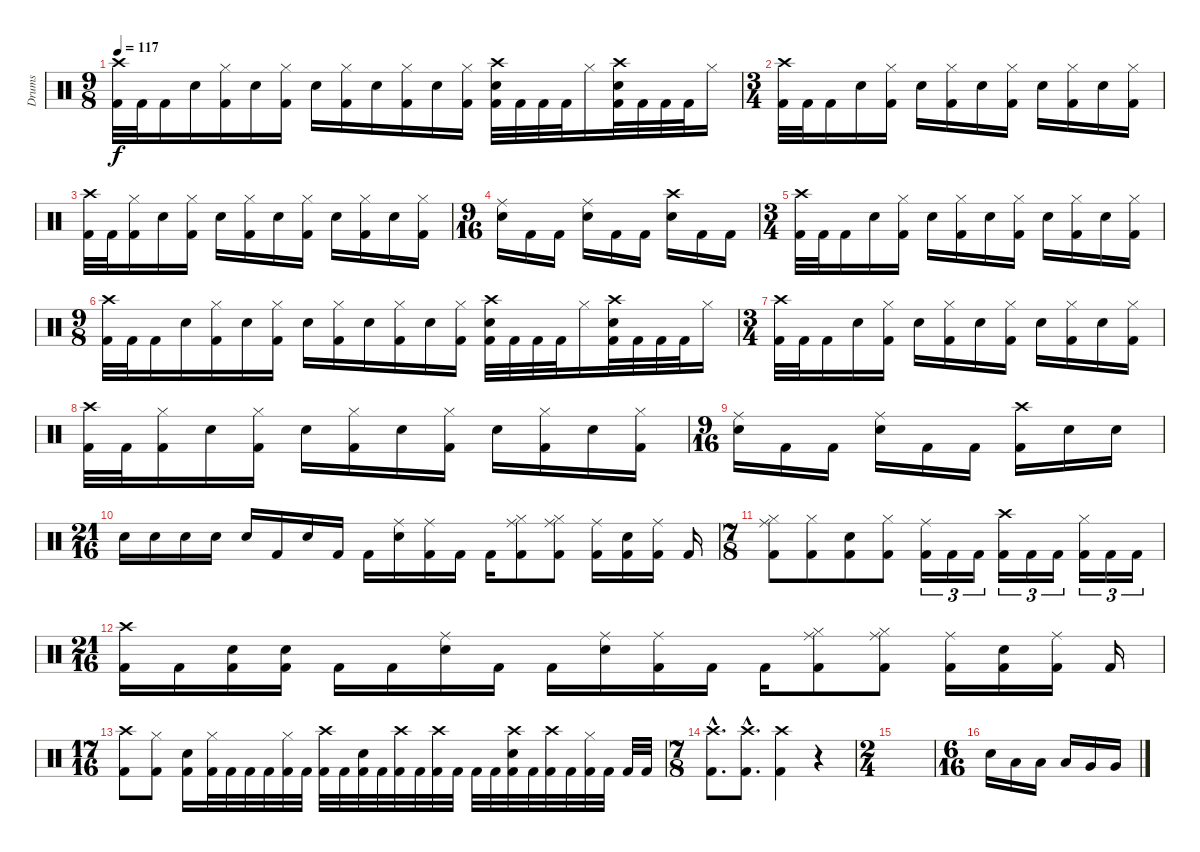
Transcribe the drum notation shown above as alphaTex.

\track ("Drums" "Drums") {instrument percussion}
\staff {score}
\articulation defaults
\ts (9 8)
\tempo 117
\clef neutral
\ks c
("Crash high (hit)" "Kick (hit) 2").32{dy f} "Kick (hit) 2".32 "Kick (hit) 2".16 "Electric Snare (hit)".16 ("Hi-Hat (closed)" "Kick (hit) 2").16 "Electric Snare (hit)".16 ("Hi-Hat (closed)" "Kick (hit) 2").16 "Electric Snare (hit)".16 ("Hi-Hat (closed)" "Kick (hit) 2").16 "Electric Snare (hit)".16 ("Hi-Hat (closed)" "Kick (hit) 2").16 "Electric Snare (hit)".16 ("Hi-Hat (closed)" "Kick (hit) 2").16 ("Crash high (hit)" "Electric Snare (hit)" "Kick (hit) 2").32 "Kick (hit) 2".32 "Kick (hit) 2".32 "Kick (hit) 2".32 "Hi-Hat (closed)".16 ("Crash high (hit)" "Electric Snare (hit)" "Kick (hit) 2").32 "Kick (hit) 2".32 "Kick (hit) 2".32 "Kick (hit) 2".32 "Hi-Hat (closed)".16 |
\ts (3 4)
("Crash high (hit)" "Kick (hit) 2").32 "Kick (hit) 2".32 "Kick (hit) 2".16 "Electric Snare (hit)".16 ("Hi-Hat (closed)" "Kick (hit) 2").16 "Electric Snare (hit)".16 ("Hi-Hat (closed)" "Kick (hit) 2").16 "Electric Snare (hit)".16 ("Hi-Hat (closed)" "Kick (hit) 2").16 "Electric Snare (hit)".16 ("Hi-Hat (closed)" "Kick (hit) 2").16 "Electric Snare (hit)".16 ("Hi-Hat (closed)" "Kick (hit) 2").16 |
("Crash high (hit)" "Kick (hit) 2").32 "Kick (hit) 2".32 ("Hi-Hat (closed)" "Kick (hit) 2").16 "Electric Snare (hit)".16 ("Hi-Hat (closed)" "Kick (hit) 2").16 "Electric Snare (hit)".16 ("Hi-Hat (closed)" "Kick (hit) 2").16 "Electric Snare (hit)".16 ("Hi-Hat (closed)" "Kick (hit) 2").16 "Electric Snare (hit)".16 ("Hi-Hat (closed)" "Kick (hit) 2").16 "Electric Snare (hit)".16 ("Hi-Hat (closed)" "Kick (hit) 2").16 |
\ts (9 16)
("Ride (middle)" "Electric Snare (hit)").16 "Kick (hit) 2".16 "Kick (hit) 2".16 ("Ride (middle)" "Electric Snare (hit)").16 "Kick (hit) 2".16 "Kick (hit) 2".16 ("Crash high (hit)" "Electric Snare (hit)").16 "Kick (hit) 2".16 "Kick (hit) 2".16 |
\ts (3 4)
("Crash high (hit)" "Kick (hit) 2").32 "Kick (hit) 2".32 "Kick (hit) 2".16 "Electric Snare (hit)".16 ("Hi-Hat (closed)" "Kick (hit) 2").16 "Electric Snare (hit)".16 ("Hi-Hat (closed)" "Kick (hit) 2").16 "Electric Snare (hit)".16 ("Hi-Hat (closed)" "Kick (hit) 2").16 "Electric Snare (hit)".16 ("Hi-Hat (closed)" "Kick (hit) 2").16 "Electric Snare (hit)".16 ("Hi-Hat (closed)" "Kick (hit) 2").16 |
\ts (9 8)
("Crash high (hit)" "Kick (hit) 2").32 "Kick (hit) 2".32 "Kick (hit) 2".16 "Electric Snare (hit)".16 ("Hi-Hat (closed)" "Kick (hit) 2").16 "Electric Snare (hit)".16 ("Hi-Hat (closed)" "Kick (hit) 2").16 "Electric Snare (hit)".16 ("Hi-Hat (closed)" "Kick (hit) 2").16 "Electric Snare (hit)".16 ("Hi-Hat (closed)" "Kick (hit) 2").16 "Electric Snare (hit)".16 ("Hi-Hat (closed)" "Kick (hit) 2").16 ("Crash high (hit)" "Electric Snare (hit)" "Kick (hit) 2").32 "Kick (hit) 2".32 "Kick (hit) 2".32 "Kick (hit) 2".32 "Hi-Hat (closed)".16 ("Crash high (hit)" "Electric Snare (hit)" "Kick (hit) 2").32 "Kick (hit) 2".32 "Kick (hit) 2".32 "Kick (hit) 2".32 "Hi-Hat (closed)".16 |
\ts (3 4)
("Crash high (hit)" "Kick (hit) 2").32 "Kick (hit) 2".32 "Kick (hit) 2".16 "Electric Snare (hit)".16 ("Hi-Hat (closed)" "Kick (hit) 2").16 "Electric Snare (hit)".16 ("Hi-Hat (closed)" "Kick (hit) 2").16 "Electric Snare (hit)".16 ("Hi-Hat (closed)" "Kick (hit) 2").16 "Electric Snare (hit)".16 ("Hi-Hat (closed)" "Kick (hit) 2").16 "Electric Snare (hit)".16 ("Hi-Hat (closed)" "Kick (hit) 2").16 |
("Crash high (hit)" "Kick (hit) 2").32 "Kick (hit) 2".32 ("Hi-Hat (closed)" "Kick (hit) 2").16 "Electric Snare (hit)".16 ("Hi-Hat (closed)" "Kick (hit) 2").16 "Electric Snare (hit)".16 ("Hi-Hat (closed)" "Kick (hit) 2").16 "Electric Snare (hit)".16 ("Hi-Hat (closed)" "Kick (hit) 2").16 "Electric Snare (hit)".16 ("Hi-Hat (closed)" "Kick (hit) 2").16 "Electric Snare (hit)".16 ("Hi-Hat (closed)" "Kick (hit) 2").16 |
\ts (9 16)
("Ride (middle)" "Electric Snare (hit)").16 "Kick (hit) 2".16 "Kick (hit) 2".16 ("Ride (middle)" "Electric Snare (hit)").16 "Kick (hit) 2".16 "Kick (hit) 2".16 ("Crash high (hit)" "Kick (hit) 2").16 "Electric Snare (hit)".16 "Electric Snare (hit)".16 |
\ts (21 16)
"Electric Snare (hit)".16 "Electric Snare (hit)".16 "Electric Snare (hit)".16 "Electric Snare (hit)".16 "Electric Snare (hit)".16 "Kick (hit) 2".16 "Electric Snare (hit)".16 "Kick (hit) 2".16 "Kick (hit) 2".16 ("Ride (middle)" "Electric Snare (hit)").16 ("Ride (middle)" "Kick (hit) 2").16 "Kick (hit) 2".16 "Kick (hit) 2".16 ("Ride (middle)" "Hi-Hat (closed)" "Kick (hit) 2").8 ("Ride (middle)" "Hi-Hat (closed)" "Kick (hit) 2").8 ("Ride (middle)" "Kick (hit) 2").16 ("Electric Snare (hit)" "Kick (hit) 2").16 ("Ride (middle)" "Kick (hit) 2").16 "Kick (hit) 2".16 |
\ts (7 8)
("Ride (middle)" "Hi-Hat (closed)" "Kick (hit) 2").8 ("Hi-Hat (closed)" "Kick (hit) 2").8 ("Electric Snare (hit)" "Kick (hit) 2").8 ("Hi-Hat (closed)" "Kick (hit) 2").8 ("Ride (middle)" "Kick (hit) 2").16{tu (3 2)} "Kick (hit) 2".16{tu (3 2)} "Kick (hit) 2".16{tu (3 2)} ("Crash high (hit)" "Kick (hit) 2").16{tu (3 2)} "Kick (hit) 2".16{tu (3 2)} "Kick (hit) 2".16{tu (3 2)} ("Hi-Hat (closed)" "Kick (hit) 2").16{tu (3 2)} "Kick (hit) 2".16{tu (3 2)} "Kick (hit) 2".16{tu (3 2)} |
\ts (21 16)
("Crash high (hit)" "Kick (hit) 2").16 "Kick (hit) 2".16 ("Electric Snare (hit)" "Kick (hit) 2").16 ("Electric Snare (hit)" "Kick (hit) 2").16 "Kick (hit) 2".16 "Kick (hit) 2".16 ("Ride (middle)" "Electric Snare (hit)").16 "Kick (hit) 2".16 "Kick (hit) 2".16 ("Ride (middle)" "Electric Snare (hit)").16 ("Ride (middle)" "Kick (hit) 2").16 "Kick (hit) 2".16 "Kick (hit) 2".16 ("Ride (middle)" "Hi-Hat (closed)" "Kick (hit) 2").8 ("Ride (middle)" "Hi-Hat (closed)" "Kick (hit) 2").8 ("Ride (middle)" "Kick (hit) 2").16 ("Electric Snare (hit)" "Kick (hit) 2").16 ("Ride (middle)" "Kick (hit) 2").16 "Kick (hit) 2".16 |
\ts (17 16)
("Crash high (hit)" "Kick (hit) 2").8 ("Hi-Hat (closed)" "Kick (hit) 2").8 ("Electric Snare (hit)" "Kick (hit) 2").16 ("Hi-Hat (closed)" "Kick (hit) 2").32 "Kick (hit) 2".32 "Kick (hit) 2".32 "Kick (hit) 2".32 ("Hi-Hat (closed)" "Kick (hit) 2").32 "Kick (hit) 2".32 ("Crash high (hit)" "Kick (hit) 2").32 "Kick (hit) 2".32 ("Electric Snare (hit)" "Kick (hit) 2").32 "Kick (hit) 2".32 ("Crash high (hit)" "Kick (hit) 2").32 "Kick (hit) 2".32 ("Crash high (hit)" "Kick (hit) 2").32 "Kick (hit) 2".32 "Kick (hit) 2".32 "Kick (hit) 2".32 ("Crash high (hit)" "Electric Snare (hit)" "Kick (hit) 2").32 "Kick (hit) 2".32 ("Crash high (hit)" "Kick (hit) 2").32 "Kick (hit) 2".32 ("Hi-Hat (closed)" "Kick (hit) 2").32 "Kick (hit) 2".32 "Kick (hit) 2".32 "Kick (hit) 2".32 |
\ts (7 8)
("Crash high (hit)"{hac} "Kick (hit) 2"{hac}).8{d} ("Crash high (hit)"{hac} "Kick (hit) 2"{hac}).8{d} ("Crash high (hit)" "Kick (hit) 2").4 r.4 |
\ts (2 4)
|
\ts (6 16)
"Electric Snare (hit)".16 "Low Floor Tom (hit)".16 "Low Floor Tom (hit)".16 "Low Floor Tom (hit)".16 "Very Low Tom (hit)".16 "Very Low Tom (hit)".16
